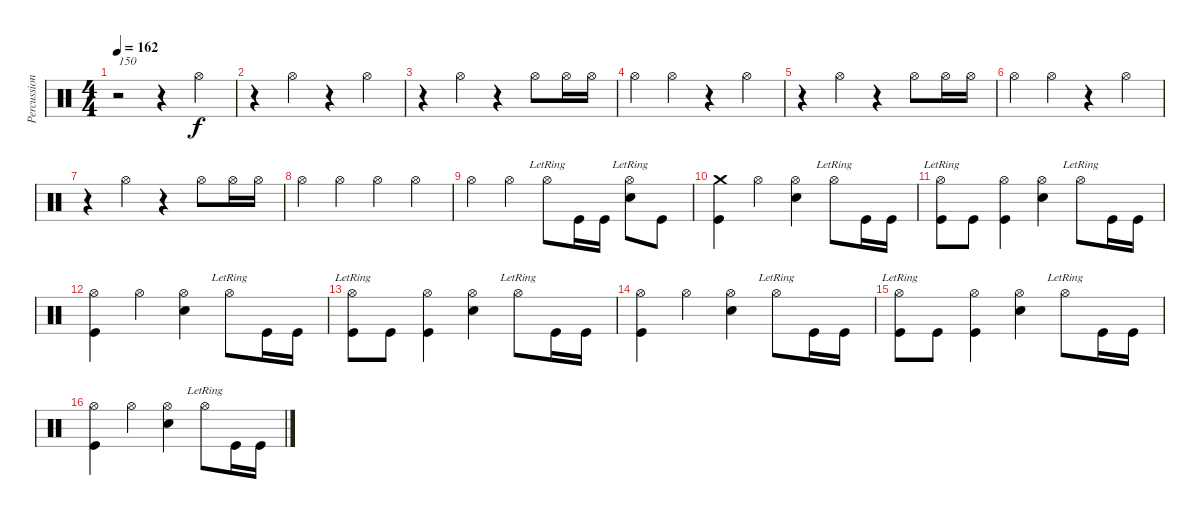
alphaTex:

\track ("Percussions" "Percussion") {instrument percussion}
\staff {score}
\articulation defaults
\ts (4 4)
\tempo 162
\tempo 150
\tempo 162
\clef neutral
\ks c
r.2{txt "150" dy f} r.4 "Hi-Hat (open)".4 |
r.4 "Hi-Hat (open)".4 r.4 "Hi-Hat (open)".4 |
r.4 "Hi-Hat (open)".4 r.4 "Hi-Hat (open)".8 "Hi-Hat (open)".16 "Hi-Hat (open)".16 |
"Hi-Hat (open)".4 "Hi-Hat (open)".4 r.4 "Hi-Hat (open)".4 |
r.4 "Hi-Hat (open)".4 r.4 "Hi-Hat (open)".8 "Hi-Hat (open)".16 "Hi-Hat (open)".16 |
"Hi-Hat (open)".4 "Hi-Hat (open)".4 r.4 "Hi-Hat (open)".4 |
r.4 "Hi-Hat (open)".4 r.4 "Hi-Hat (open)".8 "Hi-Hat (open)".16 "Hi-Hat (open)".16 |
"Hi-Hat (open)".4 "Hi-Hat (open)".4 "Hi-Hat (open)".4 "Hi-Hat (open)".4 |
"Hi-Hat (open)".4 "Hi-Hat (open)".4 "Hi-Hat (open)"{lr}.8 "Kick (hit)".16 "Kick (hit)".16 ("Hi-Hat (open)"{lr} "Snare (hit) 2").8 "Kick (hit)".8 |
("Crash medium (hit)" "Kick (hit)").4 "Hi-Hat (open)".4 ("Hi-Hat (open)" "Snare (hit) 2").4 "Hi-Hat (open)"{lr}.8 "Kick (hit)".16 "Kick (hit)".16 |
("Hi-Hat (open)"{lr} "Kick (hit)").8 "Kick (hit)".8 ("Hi-Hat (open)" "Kick (hit)").4 ("Hi-Hat (open)" "Snare (hit) 2").4 "Hi-Hat (open)"{lr}.8 "Kick (hit)".16 "Kick (hit)".16 |
("Hi-Hat (open)" "Kick (hit)").4 "Hi-Hat (open)".4 ("Hi-Hat (open)" "Snare (hit) 2").4 "Hi-Hat (open)"{lr}.8 "Kick (hit)".16 "Kick (hit)".16 |
("Hi-Hat (open)"{lr} "Kick (hit)").8 "Kick (hit)".8 ("Hi-Hat (open)" "Kick (hit)").4 ("Hi-Hat (open)" "Snare (hit) 2").4 "Hi-Hat (open)"{lr}.8 "Kick (hit)".16 "Kick (hit)".16 |
("Hi-Hat (open)" "Kick (hit)").4 "Hi-Hat (open)".4 ("Hi-Hat (open)" "Snare (hit) 2").4 "Hi-Hat (open)"{lr}.8 "Kick (hit)".16 "Kick (hit)".16 |
("Hi-Hat (open)"{lr} "Kick (hit)").8 "Kick (hit)".8 ("Hi-Hat (open)" "Kick (hit)").4 ("Hi-Hat (open)" "Snare (hit) 2").4 "Hi-Hat (open)"{lr}.8 "Kick (hit)".16 "Kick (hit)".16 |
("Hi-Hat (open)" "Kick (hit)").4 "Hi-Hat (open)".4 ("Hi-Hat (open)" "Snare (hit) 2").4 "Hi-Hat (open)"{lr}.8 "Kick (hit)".16 "Kick (hit)".16
